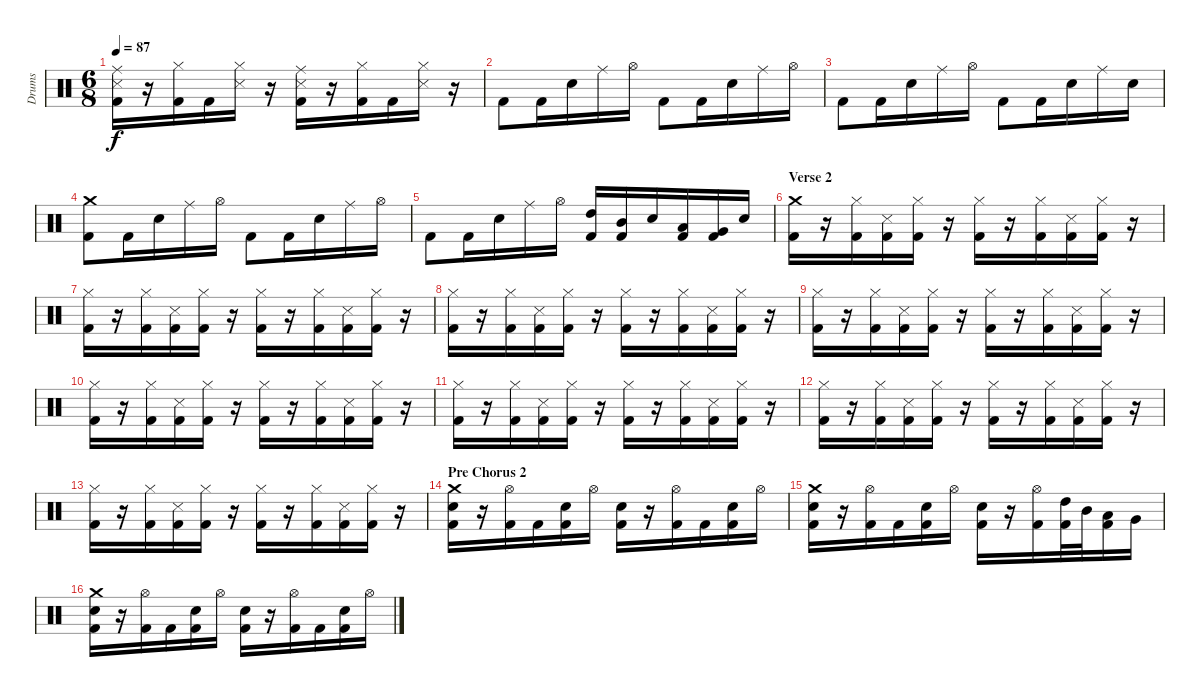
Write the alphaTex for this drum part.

\track ("Drums" "Drums") {instrument percussion}
\staff {score}
\articulation defaults
\ts (6 8)
\tempo 87
\clef neutral
\ks c
("Ride (middle)" "Snare (side stick) 3" "Kick (hit) 2").16{dy f} r.16 ("Hi-Hat (closed)" "Kick (hit) 2").16 "Kick (hit) 2".16 ("Hi-Hat (closed)" "Snare (side stick) 3").16 r.16 ("Ride (middle)" "Snare (side stick) 3" "Kick (hit) 2").16 r.16 ("Hi-Hat (closed)" "Kick (hit) 2").16 "Kick (hit) 2".16 ("Hi-Hat (closed)" "Snare (side stick) 3").16 r.16 |
"Kick (hit) 2".8 "Kick (hit) 2".16 "Snare (hit) 2".16 "Ride (middle)".16 "Hi-Hat (open)".16 "Kick (hit) 2".8 "Kick (hit) 2".16 "Snare (hit) 2".16 "Ride (middle)".16 "Hi-Hat (open)".16 |
"Kick (hit) 2".8 "Kick (hit) 2".16 "Snare (hit) 2".16 "Ride (middle)".16 "Hi-Hat (open)".16 "Kick (hit) 2".8 "Kick (hit) 2".16 "Snare (hit) 2".16 "Ride (middle)".16 "Snare (hit) 2".16 |
("Crash medium (hit)" "Kick (hit) 2").8 "Kick (hit) 2".16 "Snare (hit) 2".16 "Ride (middle)".16 "Hi-Hat (open)".16 "Kick (hit) 2".8 "Kick (hit) 2".16 "Snare (hit) 2".16 "Ride (middle)".16 "Hi-Hat (open)".16 |
"Kick (hit) 2".8 "Kick (hit) 2".16 "Snare (hit) 2".16 "Ride (middle)".16 "Hi-Hat (open)".16 ("High Tom (hit)" "Kick (hit) 2").16 ("Mid Tom (hit)" "Kick (hit) 2").16 "Snare (hit) 2".16 ("Low Tom (hit)" "Kick (hit) 2").16 ("Very Low Tom (hit)" "Kick (hit) 2").16 "Snare (hit) 2".16 |
\section ("" "Verse 2")
("Crash medium (hit)" "Kick (hit) 2").16 r.16 ("Hi-Hat (closed)" "Kick (hit) 2").16 ("Snare (side stick) 3" "Kick (hit) 2").16 ("Hi-Hat (closed)" "Kick (hit) 2").16 r.16 ("Hi-Hat (closed)" "Kick (hit) 2").16 r.16 ("Hi-Hat (closed)" "Kick (hit) 2").16 ("Snare (side stick) 3" "Kick (hit) 2").16 ("Hi-Hat (closed)" "Kick (hit) 2").16 r.16 |
("Hi-Hat (closed)" "Kick (hit) 2").16 r.16 ("Hi-Hat (closed)" "Kick (hit) 2").16 ("Snare (side stick) 3" "Kick (hit) 2").16 ("Hi-Hat (closed)" "Kick (hit) 2").16 r.16 ("Hi-Hat (closed)" "Kick (hit) 2").16 r.16 ("Hi-Hat (closed)" "Kick (hit) 2").16 ("Snare (side stick) 3" "Kick (hit) 2").16 ("Hi-Hat (closed)" "Kick (hit) 2").16 r.16 |
("Hi-Hat (closed)" "Kick (hit) 2").16 r.16 ("Hi-Hat (closed)" "Kick (hit) 2").16 ("Snare (side stick) 3" "Kick (hit) 2").16 ("Hi-Hat (closed)" "Kick (hit) 2").16 r.16 ("Hi-Hat (closed)" "Kick (hit) 2").16 r.16 ("Hi-Hat (closed)" "Kick (hit) 2").16 ("Snare (side stick) 3" "Kick (hit) 2").16 ("Hi-Hat (closed)" "Kick (hit) 2").16 r.16 |
("Hi-Hat (closed)" "Kick (hit) 2").16 r.16 ("Hi-Hat (closed)" "Kick (hit) 2").16 ("Snare (side stick) 3" "Kick (hit) 2").16 ("Hi-Hat (closed)" "Kick (hit) 2").16 r.16 ("Hi-Hat (closed)" "Kick (hit) 2").16 r.16 ("Hi-Hat (closed)" "Kick (hit) 2").16 ("Snare (side stick) 3" "Kick (hit) 2").16 ("Hi-Hat (closed)" "Kick (hit) 2").16 r.16 |
("Hi-Hat (closed)" "Kick (hit) 2").16 r.16 ("Hi-Hat (closed)" "Kick (hit) 2").16 ("Snare (side stick) 3" "Kick (hit) 2").16 ("Hi-Hat (closed)" "Kick (hit) 2").16 r.16 ("Hi-Hat (closed)" "Kick (hit) 2").16 r.16 ("Hi-Hat (closed)" "Kick (hit) 2").16 ("Snare (side stick) 3" "Kick (hit) 2").16 ("Hi-Hat (closed)" "Kick (hit) 2").16 r.16 |
("Hi-Hat (closed)" "Kick (hit) 2").16 r.16 ("Hi-Hat (closed)" "Kick (hit) 2").16 ("Snare (side stick) 3" "Kick (hit) 2").16 ("Hi-Hat (closed)" "Kick (hit) 2").16 r.16 ("Hi-Hat (closed)" "Kick (hit) 2").16 r.16 ("Hi-Hat (closed)" "Kick (hit) 2").16 ("Snare (side stick) 3" "Kick (hit) 2").16 ("Hi-Hat (closed)" "Kick (hit) 2").16 r.16 |
("Hi-Hat (closed)" "Kick (hit) 2").16 r.16 ("Hi-Hat (closed)" "Kick (hit) 2").16 ("Snare (side stick) 3" "Kick (hit) 2").16 ("Hi-Hat (closed)" "Kick (hit) 2").16 r.16 ("Hi-Hat (closed)" "Kick (hit) 2").16 r.16 ("Hi-Hat (closed)" "Kick (hit) 2").16 ("Snare (side stick) 3" "Kick (hit) 2").16 ("Hi-Hat (closed)" "Kick (hit) 2").16 r.16 |
("Hi-Hat (closed)" "Kick (hit) 2").16 r.16 ("Hi-Hat (closed)" "Kick (hit) 2").16 ("Snare (side stick) 3" "Kick (hit) 2").16 ("Hi-Hat (closed)" "Kick (hit) 2").16 r.16 ("Hi-Hat (closed)" "Kick (hit) 2").16 r.16 ("Hi-Hat (closed)" "Kick (hit) 2").16 ("Snare (side stick) 3" "Kick (hit) 2").16 ("Hi-Hat (closed)" "Kick (hit) 2").16 r.16 |
\section ("" "Pre Chorus 2")
("Crash medium (hit)" "Snare (hit) 2" "Kick (hit) 2").16 r.16 ("Hi-Hat (open)" "Kick (hit) 2").16 "Kick (hit) 2".16 ("Snare (hit) 2" "Kick (hit) 2").16 "Hi-Hat (open)".16 ("Snare (hit) 2" "Kick (hit) 2").16 r.16 ("Hi-Hat (open)" "Kick (hit) 2").16 "Kick (hit) 2".16 ("Snare (hit) 2" "Kick (hit) 2").16 "Hi-Hat (open)".16 |
("Crash medium (hit)" "Snare (hit) 2" "Kick (hit) 2").16 r.16 ("Hi-Hat (open)" "Kick (hit) 2").16 "Kick (hit) 2".16 ("Snare (hit) 2" "Kick (hit) 2").16 "Hi-Hat (open)".16 ("Snare (hit) 2" "Kick (hit) 2").16 r.16 ("Hi-Hat (open)" "Kick (hit) 2").16 ("High Tom (hit)" "Kick (hit) 2").32 "Mid Tom (hit)".32 ("Low Tom (hit)" "Kick (hit) 2").16 "Very Low Tom (hit)".16 |
("Crash medium (hit)" "Snare (hit) 2" "Kick (hit) 2").16 r.16 ("Hi-Hat (open)" "Kick (hit) 2").16 "Kick (hit) 2".16 ("Snare (hit) 2" "Kick (hit) 2").16 "Hi-Hat (open)".16 ("Snare (hit) 2" "Kick (hit) 2").16 r.16 ("Hi-Hat (open)" "Kick (hit) 2").16 "Kick (hit) 2".16 ("Snare (hit) 2" "Kick (hit) 2").16 "Hi-Hat (open)".16
